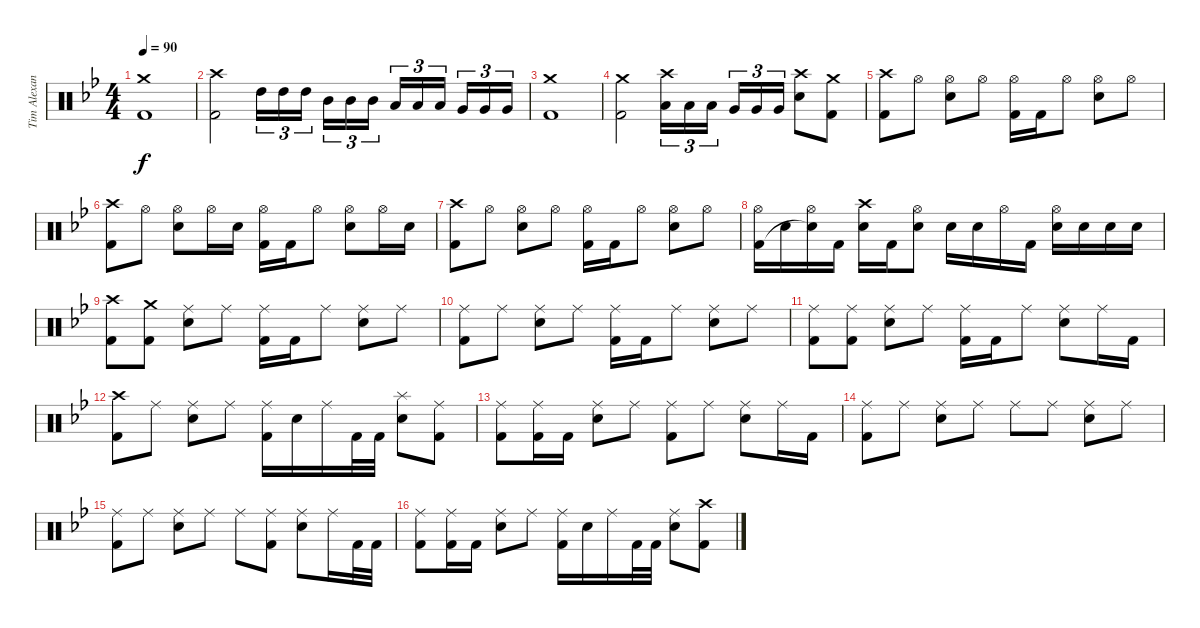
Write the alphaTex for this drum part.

\track ("Tim Alexander - Drums" "Tim Alexan") {instrument percussion}
\staff {score}
\articulation defaults
\ts (4 4)
\tempo 90
\clef neutral
\ks bb
("Crash medium (hit)" "Kick (hit) 2").1{dy f} |
("Crash high (hit)" "Kick (hit) 2").2 "High Tom (hit)".16{tu (3 2)} "High Tom (hit)".16{tu (3 2)} "High Tom (hit)".16{tu (3 2)} "Mid Tom (hit)".16{tu (3 2)} "Mid Tom (hit)".16{tu (3 2)} "Mid Tom (hit)".16{tu (3 2)} "Low Tom (hit)".16{tu (3 2)} "Low Tom (hit)".16{tu (3 2)} "Low Tom (hit)".16{tu (3 2)} "Very Low Tom (hit)".16{tu (3 2)} "Very Low Tom (hit)".16{tu (3 2)} "Very Low Tom (hit)".16{tu (3 2)} |
("Crash medium (hit)" "Kick (hit) 2").1 |
("Crash medium (hit)" "Kick (hit) 2").2 ("Crash high (hit)" "Low Tom (hit)").16{tu (3 2)} "Low Tom (hit)".16{tu (3 2)} "Low Tom (hit)".16{tu (3 2)} "Very Low Tom (hit)".16{tu (3 2)} "Very Low Tom (hit)".16{tu (3 2)} "Very Low Tom (hit)".16{tu (3 2)} ("Crash high (hit)" "Snare (hit) 2").8 ("Crash medium (hit)" "Kick (hit) 2").8 |
("Crash high (hit)" "Kick (hit) 2").8 "Hi-Hat (open)".8 ("Hi-Hat (open)" "Snare (hit) 2").8 "Hi-Hat (open)".8 ("Hi-Hat (open)" "Kick (hit) 2").16 "Kick (hit) 2".16 "Hi-Hat (open)".8 ("Hi-Hat (open)" "Snare (hit) 2").8 "Hi-Hat (open)".8 |
("Crash high (hit)" "Kick (hit) 2").8 "Hi-Hat (open)".8 ("Hi-Hat (open)" "Snare (hit) 2").8 "Hi-Hat (open)".16 "Snare (hit) 2".16 ("Hi-Hat (open)" "Kick (hit) 2").16 "Kick (hit) 2".16 "Hi-Hat (open)".8 ("Hi-Hat (open)" "Snare (hit) 2").8 "Hi-Hat (open)".16 "Snare (hit) 2".16 |
("Crash high (hit)" "Kick (hit) 2").8 "Hi-Hat (open)".8 ("Hi-Hat (open)" "Snare (hit) 2").8 "Hi-Hat (open)".8 ("Hi-Hat (open)" "Kick (hit) 2").16 "Kick (hit) 2".16 "Hi-Hat (open)".8 ("Hi-Hat (open)" "Snare (hit) 2").8 "Hi-Hat (open)".8 |
("Hi-Hat (open)" "Kick (hit) 2").16 "Snare (hit) 2".16 ("Hi-Hat (open)" "Snare (hit)"{t}).16 "Kick (hit) 2".16 ("Crash high (hit)" "Snare (hit) 2").16 "Kick (hit) 2".16 ("Hi-Hat (open)" "Snare (hit) 2").8 "Snare (hit) 2".16 "Snare (hit) 2".16 "Hi-Hat (open)".16 "Kick (hit) 2".16 ("Hi-Hat (open)" "Snare (hit) 2").16 "Snare (hit) 2".16 "Snare (hit) 2".16 "Snare (hit) 2".16 |
("Crash high (hit)" "Kick (hit) 2").8 ("Crash medium (hit)" "Kick (hit) 2").8 ("Ride (middle)" "Snare (hit) 2").8 "Ride (middle)".8 ("Ride (middle)" "Kick (hit) 2").16 "Kick (hit) 2".16 "Ride (middle)".8 ("Ride (middle)" "Snare (hit) 2").8 "Ride (middle)".8 |
("Ride (middle)" "Kick (hit) 2").8 "Ride (middle)".8 ("Ride (middle)" "Snare (hit) 2").8 "Ride (middle)".8 ("Ride (middle)" "Kick (hit) 2").16 "Kick (hit) 2".16 "Ride (middle)".8 ("Ride (middle)" "Snare (hit) 2").8 "Ride (middle)".8 |
("Ride (middle)" "Kick (hit) 2").8 ("Ride (middle)" "Kick (hit) 2").8 ("Ride (middle)" "Snare (hit) 2").8 "Ride (middle)".8 ("Ride (middle)" "Kick (hit) 2").16 "Kick (hit) 2".16 "Ride (middle)".8 ("Ride (middle)" "Snare (hit) 2").8 "Ride (middle)".16 "Kick (hit) 2".16 |
("Crash high (hit)" "Kick (hit) 2").8 "Ride (middle)".8 ("Ride (middle)" "Snare (hit) 2").8 "Ride (middle)".8 ("Ride (middle)" "Kick (hit) 2").16 "Snare (hit) 2".16 "Ride (middle)".16 "Kick (hit) 2".32 "Kick (hit) 2".32 ("Splash (hit)" "Snare (hit) 2").8 ("Ride (middle)" "Kick (hit) 2").8 |
("Ride (middle)" "Kick (hit) 2").8 ("Ride (middle)" "Kick (hit) 2").16 "Kick (hit) 2".16 ("Ride (middle)" "Snare (hit) 2").8 "Ride (middle)".8 ("Ride (middle)" "Kick (hit) 2").8 "Ride (middle)".8 ("Ride (middle)" "Snare (hit) 2").8 "Ride (middle)".16 "Kick (hit) 2".16 |
("Ride (middle)" "Kick (hit) 2").8 "Ride (middle)".8 ("Ride (middle)" "Snare (hit) 2").8 "Ride (middle)".8 "Ride (middle)".8 "Ride (middle)".8 ("Ride (middle)" "Snare (hit) 2").8 "Ride (middle)".8 |
("Ride (middle)" "Kick (hit) 2").8 "Ride (middle)".8 ("Ride (middle)" "Snare (hit) 2").8 "Ride (middle)".8 "Ride (middle)".8 ("Ride (middle)" "Kick (hit) 2").8 ("Ride (middle)" "Snare (hit) 2").8 "Ride (middle)".16 "Kick (hit) 2".32 "Kick (hit) 2".32 |
("Ride (middle)" "Kick (hit) 2").8 ("Ride (middle)" "Kick (hit) 2").16 "Kick (hit) 2".16 ("Ride (middle)" "Snare (hit) 2").8 "Ride (middle)".8 ("Ride (middle)" "Kick (hit) 2").16 "Snare (hit) 2".16 "Ride (middle)".16 "Kick (hit) 2".32 "Kick (hit) 2".32 ("Ride (middle)" "Snare (hit) 2").8 ("Crash high (hit)" "Kick (hit) 2").8
